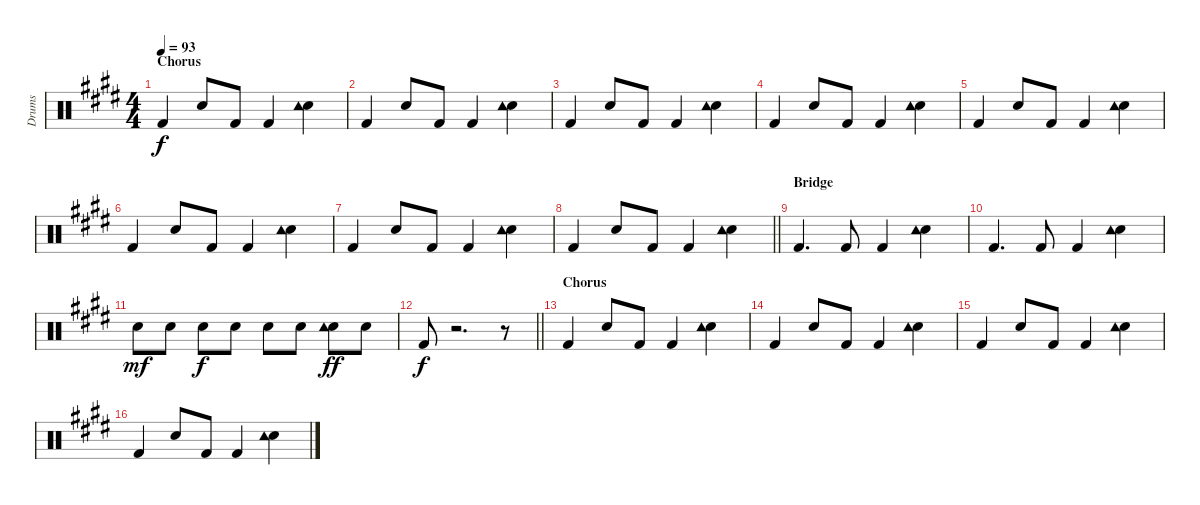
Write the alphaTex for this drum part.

\track ("Drums" "Drums") {instrument percussion}
\staff {score}
\articulation defaults
\ts (4 4)
\section ("" "Chorus")
\tempo 93
\clef neutral
\ks c#minor "Kick (hit) 2".4{dy f} "Hand Clap (hit)".8 "Kick (hit) 2".8 "Kick (hit) 2".4
("Electric Snare (hit)" "Tambourine (hit)").4 |
"Kick (hit) 2".4 "Hand Clap (hit)".8 "Kick (hit) 2".8 "Kick (hit) 2".4 ("Electric Snare (hit)" "Tambourine (hit)").4 |
"Kick (hit) 2".4 "Hand Clap (hit)".8 "Kick (hit) 2".8 "Kick (hit) 2".4 ("Electric Snare (hit)" "Tambourine (hit)").4 |
"Kick (hit) 2".4 "Hand Clap (hit)".8 "Kick (hit) 2".8 "Kick (hit) 2".4 ("Electric Snare (hit)" "Tambourine (hit)").4 |
"Kick (hit) 2".4 "Hand Clap (hit)".8 "Kick (hit) 2".8 "Kick (hit) 2".4 ("Electric Snare (hit)" "Tambourine (hit)").4 |
"Kick (hit) 2".4 "Hand Clap (hit)".8 "Kick (hit) 2".8 "Kick (hit) 2".4 ("Electric Snare (hit)" "Tambourine (hit)").4 |
"Kick (hit) 2".4 "Hand Clap (hit)".8 "Kick (hit) 2".8 "Kick (hit) 2".4 ("Electric Snare (hit)" "Tambourine (hit)").4 |
\barLineRight lightlight "Kick (hit) 2".4 "Hand Clap (hit)".8 "Kick (hit) 2".8 "Kick (hit) 2".4
("Electric Snare (hit)" "Tambourine (hit)").4 |
\section ("" "Bridge")
"Kick (hit) 2".4{d} "Kick (hit) 2".8 "Kick (hit) 2".4 ("Electric Snare (hit)" "Tambourine (hit)").4 |
"Kick (hit) 2".4{d} "Kick (hit) 2".8 "Kick (hit) 2".4 ("Electric Snare (hit)" "Tambourine (hit)").4 |
"Electric Snare (hit)".8{dy mf} "Electric Snare (hit)".8 "Electric Snare (hit)".8{dy f} "Electric Snare (hit)".8 "Electric Snare (hit)".8 "Electric Snare (hit)".8 ("Electric Snare (hit)" "Tambourine (hit)").8{dy ff} "Electric Snare (hit)".8 |
\barLineRight lightlight "Kick (hit) 2".8{dy f}
r.2{d} r.8 |
\section ("" "Chorus")
"Kick (hit) 2".4 "Electric Snare (hit)".8 "Kick (hit) 2".8 "Kick (hit) 2".4 ("Electric Snare (hit)" "Tambourine (hit)").4 |
"Kick (hit) 2".4 "Electric Snare (hit)".8 "Kick (hit) 2".8 "Kick (hit) 2".4 ("Electric Snare (hit)" "Tambourine (hit)").4 |
"Kick (hit) 2".4 "Electric Snare (hit)".8 "Kick (hit) 2".8 "Kick (hit) 2".4 ("Electric Snare (hit)" "Tambourine (hit)").4 |
"Kick (hit) 2".4 "Electric Snare (hit)".8 "Kick (hit) 2".8 "Kick (hit) 2".4 ("Electric Snare (hit)" "Tambourine (hit)").4
